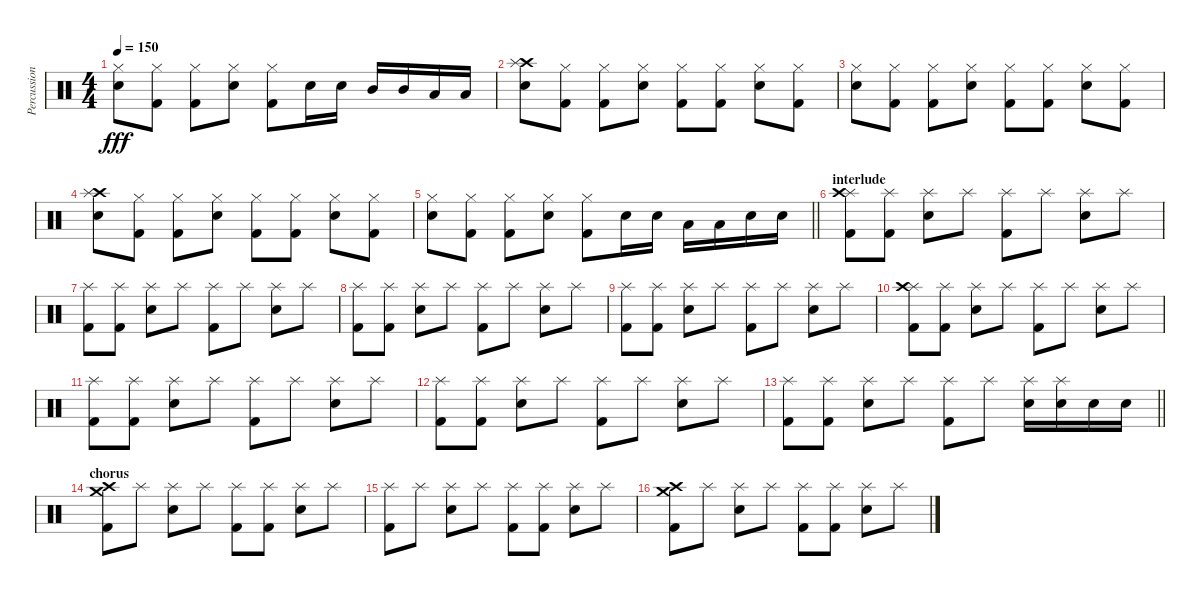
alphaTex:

\track ("Percussion" "Percussion") {instrument percussion}
\staff {score}
\articulation defaults
\ts (4 4)
\tempo 150
\clef neutral
\ks c
("Hi-Hat (closed)" "Electric Snare (hit)").8{dy fff} ("Hi-Hat (closed)" "Kick (hit) 2").8 ("Hi-Hat (closed)" "Kick (hit) 2").8 ("Hi-Hat (closed)" "Electric Snare (hit)").8 ("Hi-Hat (closed)" "Kick (hit) 2").8 "Electric Snare (hit)".16 "Electric Snare (hit)".16 "Mid Tom (hit)".16 "Mid Tom (hit)".16 "Low Floor Tom (hit)".16 "Low Floor Tom (hit)".16 |
("Crash high (hit)" "Electric Snare (hit)" "Splash (hit)").8 ("Hi-Hat (closed)" "Kick (hit) 2").8 ("Hi-Hat (closed)" "Kick (hit) 2").8 ("Hi-Hat (closed)" "Electric Snare (hit)").8 ("Hi-Hat (closed)" "Kick (hit) 2").8 ("Hi-Hat (closed)" "Kick (hit) 2").8 ("Hi-Hat (closed)" "Electric Snare (hit)").8 ("Hi-Hat (closed)" "Kick (hit) 2").8 |
("Hi-Hat (closed)" "Electric Snare (hit)").8 ("Hi-Hat (closed)" "Kick (hit) 2").8 ("Hi-Hat (closed)" "Kick (hit) 2").8 ("Hi-Hat (closed)" "Electric Snare (hit)").8 ("Hi-Hat (closed)" "Kick (hit) 2").8 ("Hi-Hat (closed)" "Kick (hit) 2").8 ("Hi-Hat (closed)" "Electric Snare (hit)").8 ("Hi-Hat (closed)" "Kick (hit) 2").8 |
("Crash high (hit)" "Electric Snare (hit)" "Splash (hit)").8 ("Hi-Hat (closed)" "Kick (hit) 2").8 ("Hi-Hat (closed)" "Kick (hit) 2").8 ("Hi-Hat (closed)" "Electric Snare (hit)").8 ("Hi-Hat (closed)" "Kick (hit) 2").8 ("Hi-Hat (closed)" "Kick (hit) 2").8 ("Hi-Hat (closed)" "Electric Snare (hit)").8 ("Hi-Hat (closed)" "Kick (hit) 2").8 |
\barLineRight lightlight
("Hi-Hat (closed)" "Electric Snare (hit)").8 ("Hi-Hat (closed)" "Kick (hit) 2").8 ("Hi-Hat (closed)" "Kick (hit) 2").8 ("Hi-Hat (closed)" "Electric Snare (hit)").8 ("Hi-Hat (closed)" "Kick (hit) 2").8 "Electric Snare (hit)".16 "Electric Snare (hit)".16 "Low Floor Tom (hit)".16 "Low Floor Tom (hit)".16 "Electric Snare (hit)".16 "Electric Snare (hit)".16 |
\section ("" "interlude")
("Splash (hit)" "Kick (hit) 2" "Crash high (hit)").8 ("Splash (hit)" "Kick (hit) 2").8 ("Splash (hit)" "Electric Snare (hit)").8 "Splash (hit)".8 ("Splash (hit)" "Kick (hit) 2").8 "Splash (hit)".8 ("Splash (hit)" "Electric Snare (hit)").8 "Splash (hit)".8 |
("Splash (hit)" "Kick (hit) 2").8 ("Splash (hit)" "Kick (hit) 2").8 ("Splash (hit)" "Electric Snare (hit)").8 "Splash (hit)".8 ("Splash (hit)" "Kick (hit) 2").8 "Splash (hit)".8 ("Splash (hit)" "Electric Snare (hit)").8 "Splash (hit)".8 |
("Splash (hit)" "Kick (hit) 2").8 ("Splash (hit)" "Kick (hit) 2").8 ("Splash (hit)" "Electric Snare (hit)").8 "Splash (hit)".8 ("Splash (hit)" "Kick (hit) 2").8 "Splash (hit)".8 ("Splash (hit)" "Electric Snare (hit)").8 "Splash (hit)".8 |
("Splash (hit)" "Kick (hit) 2").8 ("Splash (hit)" "Kick (hit) 2").8 ("Splash (hit)" "Electric Snare (hit)").8 "Splash (hit)".8 ("Splash (hit)" "Kick (hit) 2").8 "Splash (hit)".8 ("Splash (hit)" "Electric Snare (hit)").8 "Splash (hit)".8 |
("Splash (hit)" "Kick (hit) 2" "Crash high (hit)").8 ("Splash (hit)" "Kick (hit) 2").8 ("Splash (hit)" "Electric Snare (hit)").8 "Splash (hit)".8 ("Splash (hit)" "Kick (hit) 2").8 "Splash (hit)".8 ("Splash (hit)" "Electric Snare (hit)").8 "Splash (hit)".8 |
("Splash (hit)" "Kick (hit) 2").8 ("Splash (hit)" "Kick (hit) 2").8 ("Splash (hit)" "Electric Snare (hit)").8 "Splash (hit)".8 ("Splash (hit)" "Kick (hit) 2").8 "Splash (hit)".8 ("Splash (hit)" "Electric Snare (hit)").8 "Splash (hit)".8 |
("Splash (hit)" "Kick (hit) 2").8 ("Splash (hit)" "Kick (hit) 2").8 ("Splash (hit)" "Electric Snare (hit)").8 "Splash (hit)".8 ("Splash (hit)" "Kick (hit) 2").8 "Splash (hit)".8 ("Splash (hit)" "Electric Snare (hit)").8 "Splash (hit)".8 |
\barLineRight lightlight
("Splash (hit)" "Kick (hit) 2").8 ("Splash (hit)" "Kick (hit) 2").8 ("Splash (hit)" "Electric Snare (hit)").8 "Splash (hit)".8 ("Splash (hit)" "Kick (hit) 2").8 "Splash (hit)".8 ("Splash (hit)" "Electric Snare (hit)").16 ("Splash (hit)" "Electric Snare (hit)").16 "Electric Snare (hit)".16 "Electric Snare (hit)".16 |
\section ("" "chorus")
("Crash high (hit)" "Kick (hit) 2" "Crash medium (hit)").8 "Splash (hit)".8 ("Splash (hit)" "Electric Snare (hit)").8 "Splash (hit)".8 ("Splash (hit)" "Kick (hit) 2").8 ("Splash (hit)" "Kick (hit) 2").8 ("Splash (hit)" "Electric Snare (hit)").8 "Splash (hit)".8 |
("Splash (hit)" "Kick (hit) 2").8 "Splash (hit)".8 ("Splash (hit)" "Electric Snare (hit)").8 "Splash (hit)".8 ("Splash (hit)" "Kick (hit) 2").8 ("Splash (hit)" "Kick (hit) 2").8 ("Splash (hit)" "Electric Snare (hit)").8 "Splash (hit)".8 |
("Crash high (hit)" "Kick (hit) 2" "Crash medium (hit)").8 "Splash (hit)".8 ("Splash (hit)" "Electric Snare (hit)").8 "Splash (hit)".8 ("Splash (hit)" "Kick (hit) 2").8 ("Splash (hit)" "Kick (hit) 2").8 ("Splash (hit)" "Electric Snare (hit)").8 "Splash (hit)".8
